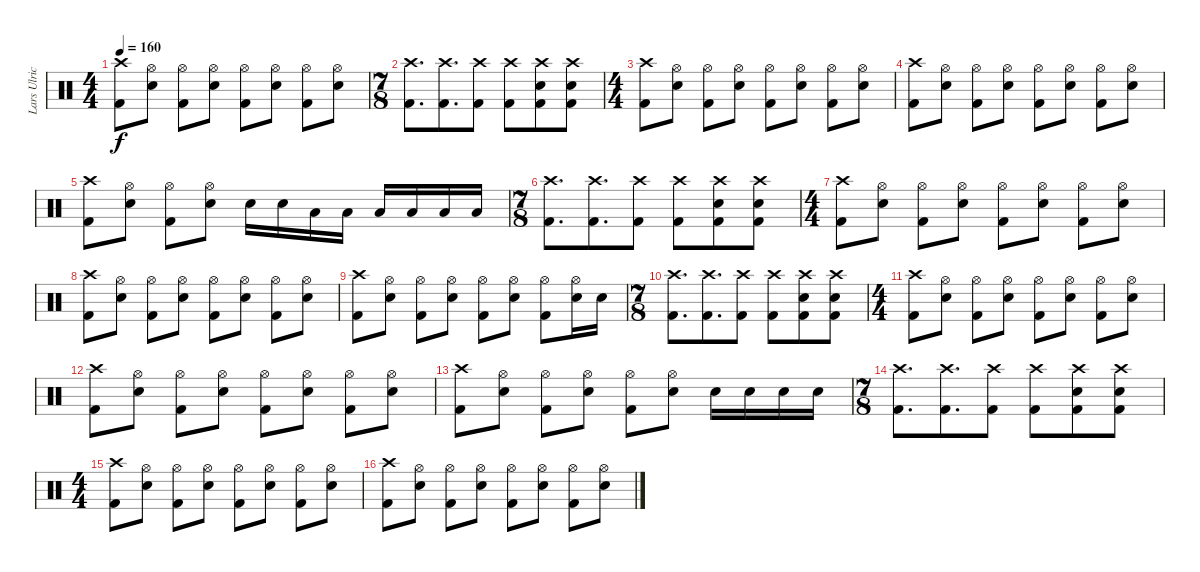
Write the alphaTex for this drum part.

\track ("Lars Ulrich (Drums)" "Lars Ulric") {instrument percussion}
\staff {score}
\articulation defaults
\ts (4 4)
\tempo 160
\clef neutral
\ks c
("Crash high (hit)" "Kick (hit) 2").8{dy f} ("Hi-Hat (open)" "Electric Snare (hit)").8 ("Hi-Hat (open)" "Kick (hit) 2").8 ("Hi-Hat (open)" "Electric Snare (hit)").8 ("Hi-Hat (open)" "Kick (hit) 2").8 ("Hi-Hat (open)" "Electric Snare (hit)").8 ("Hi-Hat (open)" "Kick (hit) 2").8 ("Hi-Hat (open)" "Electric Snare (hit)").8 |
\ts (7 8)
("Crash high (hit)" "Kick (hit) 2").8{d} ("Crash high (hit)" "Kick (hit) 2").8{d} ("Crash high (hit)" "Kick (hit) 2").8 ("Crash high (hit)" "Kick (hit) 2").8 ("Crash high (hit)" "Electric Snare (hit)" "Kick (hit) 2").8 ("Crash high (hit)" "Electric Snare (hit)" "Kick (hit) 2").8 |
\ts (4 4)
("Crash high (hit)" "Kick (hit) 2").8 ("Hi-Hat (open)" "Electric Snare (hit)").8 ("Hi-Hat (open)" "Kick (hit) 2").8 ("Hi-Hat (open)" "Electric Snare (hit)").8 ("Hi-Hat (open)" "Kick (hit) 2").8 ("Hi-Hat (open)" "Electric Snare (hit)").8 ("Hi-Hat (open)" "Kick (hit) 2").8 ("Hi-Hat (open)" "Electric Snare (hit)").8 |
("Crash high (hit)" "Kick (hit) 2").8 ("Hi-Hat (open)" "Electric Snare (hit)").8 ("Hi-Hat (open)" "Kick (hit) 2").8 ("Hi-Hat (open)" "Electric Snare (hit)").8 ("Hi-Hat (open)" "Kick (hit) 2").8 ("Hi-Hat (open)" "Electric Snare (hit)").8 ("Hi-Hat (open)" "Kick (hit) 2").8 ("Hi-Hat (open)" "Electric Snare (hit)").8 |
("Crash high (hit)" "Kick (hit) 2").8 ("Hi-Hat (open)" "Electric Snare (hit)").8 ("Hi-Hat (open)" "Kick (hit) 2").8 ("Hi-Hat (open)" "Electric Snare (hit)").8 "Electric Snare (hit)".16 "Electric Snare (hit)".16 "Low Tom (hit)".16 "Low Tom (hit)".16 "Low Tom (hit)".16 "Low Tom (hit)".16 "Low Tom (hit)".16 "Low Tom (hit)".16 |
\ts (7 8)
("Crash high (hit)" "Kick (hit) 2").8{d} ("Crash high (hit)" "Kick (hit) 2").8{d} ("Crash high (hit)" "Kick (hit) 2").8 ("Crash high (hit)" "Kick (hit) 2").8 ("Crash high (hit)" "Electric Snare (hit)" "Kick (hit) 2").8 ("Crash high (hit)" "Electric Snare (hit)" "Kick (hit) 2").8 |
\ts (4 4)
("Crash high (hit)" "Kick (hit) 2").8 ("Hi-Hat (open)" "Electric Snare (hit)").8 ("Hi-Hat (open)" "Kick (hit) 2").8 ("Hi-Hat (open)" "Electric Snare (hit)").8 ("Hi-Hat (open)" "Kick (hit) 2").8 ("Hi-Hat (open)" "Electric Snare (hit)").8 ("Hi-Hat (open)" "Kick (hit) 2").8 ("Hi-Hat (open)" "Electric Snare (hit)").8 |
("Crash high (hit)" "Kick (hit) 2").8 ("Hi-Hat (open)" "Electric Snare (hit)").8 ("Hi-Hat (open)" "Kick (hit) 2").8 ("Hi-Hat (open)" "Electric Snare (hit)").8 ("Hi-Hat (open)" "Kick (hit) 2").8 ("Hi-Hat (open)" "Electric Snare (hit)").8 ("Hi-Hat (open)" "Kick (hit) 2").8 ("Hi-Hat (open)" "Electric Snare (hit)").8 |
("Crash high (hit)" "Kick (hit) 2").8 ("Hi-Hat (open)" "Electric Snare (hit)").8 ("Hi-Hat (open)" "Kick (hit) 2").8 ("Hi-Hat (open)" "Electric Snare (hit)").8 ("Hi-Hat (open)" "Kick (hit) 2").8 ("Hi-Hat (open)" "Electric Snare (hit)").8 ("Hi-Hat (open)" "Kick (hit) 2").8 ("Hi-Hat (open)" "Electric Snare (hit)").16 "Electric Snare (hit)".16 |
\ts (7 8)
("Crash high (hit)" "Kick (hit) 2").8{d} ("Crash high (hit)" "Kick (hit) 2").8{d} ("Crash high (hit)" "Kick (hit) 2").8 ("Crash high (hit)" "Kick (hit) 2").8 ("Crash high (hit)" "Electric Snare (hit)" "Kick (hit) 2").8 ("Crash high (hit)" "Electric Snare (hit)" "Kick (hit) 2").8 |
\ts (4 4)
("Crash high (hit)" "Kick (hit) 2").8 ("Hi-Hat (open)" "Electric Snare (hit)").8 ("Hi-Hat (open)" "Kick (hit) 2").8 ("Hi-Hat (open)" "Electric Snare (hit)").8 ("Hi-Hat (open)" "Kick (hit) 2").8 ("Hi-Hat (open)" "Electric Snare (hit)").8 ("Hi-Hat (open)" "Kick (hit) 2").8 ("Hi-Hat (open)" "Electric Snare (hit)").8 |
("Crash high (hit)" "Kick (hit) 2").8 ("Hi-Hat (open)" "Electric Snare (hit)").8 ("Hi-Hat (open)" "Kick (hit) 2").8 ("Hi-Hat (open)" "Electric Snare (hit)").8 ("Hi-Hat (open)" "Kick (hit) 2").8 ("Hi-Hat (open)" "Electric Snare (hit)").8 ("Hi-Hat (open)" "Kick (hit) 2").8 ("Hi-Hat (open)" "Electric Snare (hit)").8 |
("Crash high (hit)" "Kick (hit) 2").8 ("Hi-Hat (open)" "Electric Snare (hit)").8 ("Hi-Hat (open)" "Kick (hit) 2").8 ("Hi-Hat (open)" "Electric Snare (hit)").8 ("Hi-Hat (open)" "Kick (hit) 2").8 ("Hi-Hat (open)" "Electric Snare (hit)").8 "Electric Snare (hit)".16 "Electric Snare (hit)".16 "Electric Snare (hit)".16 "Electric Snare (hit)".16 |
\ts (7 8)
("Crash high (hit)" "Kick (hit) 2").8{d} ("Crash high (hit)" "Kick (hit) 2").8{d} ("Crash high (hit)" "Kick (hit) 2").8 ("Crash high (hit)" "Kick (hit) 2").8 ("Crash high (hit)" "Electric Snare (hit)" "Kick (hit) 2").8 ("Crash high (hit)" "Electric Snare (hit)" "Kick (hit) 2").8 |
\ts (4 4)
("Crash high (hit)" "Kick (hit) 2").8 ("Hi-Hat (open)" "Electric Snare (hit)").8 ("Hi-Hat (open)" "Kick (hit) 2").8 ("Hi-Hat (open)" "Electric Snare (hit)").8 ("Hi-Hat (open)" "Kick (hit) 2").8 ("Hi-Hat (open)" "Electric Snare (hit)").8 ("Hi-Hat (open)" "Kick (hit) 2").8 ("Hi-Hat (open)" "Electric Snare (hit)").8 |
("Crash high (hit)" "Kick (hit) 2").8 ("Hi-Hat (open)" "Electric Snare (hit)").8 ("Hi-Hat (open)" "Kick (hit) 2").8 ("Hi-Hat (open)" "Electric Snare (hit)").8 ("Hi-Hat (open)" "Kick (hit) 2").8 ("Hi-Hat (open)" "Electric Snare (hit)").8 ("Hi-Hat (open)" "Kick (hit) 2").8 ("Hi-Hat (open)" "Electric Snare (hit)").8
